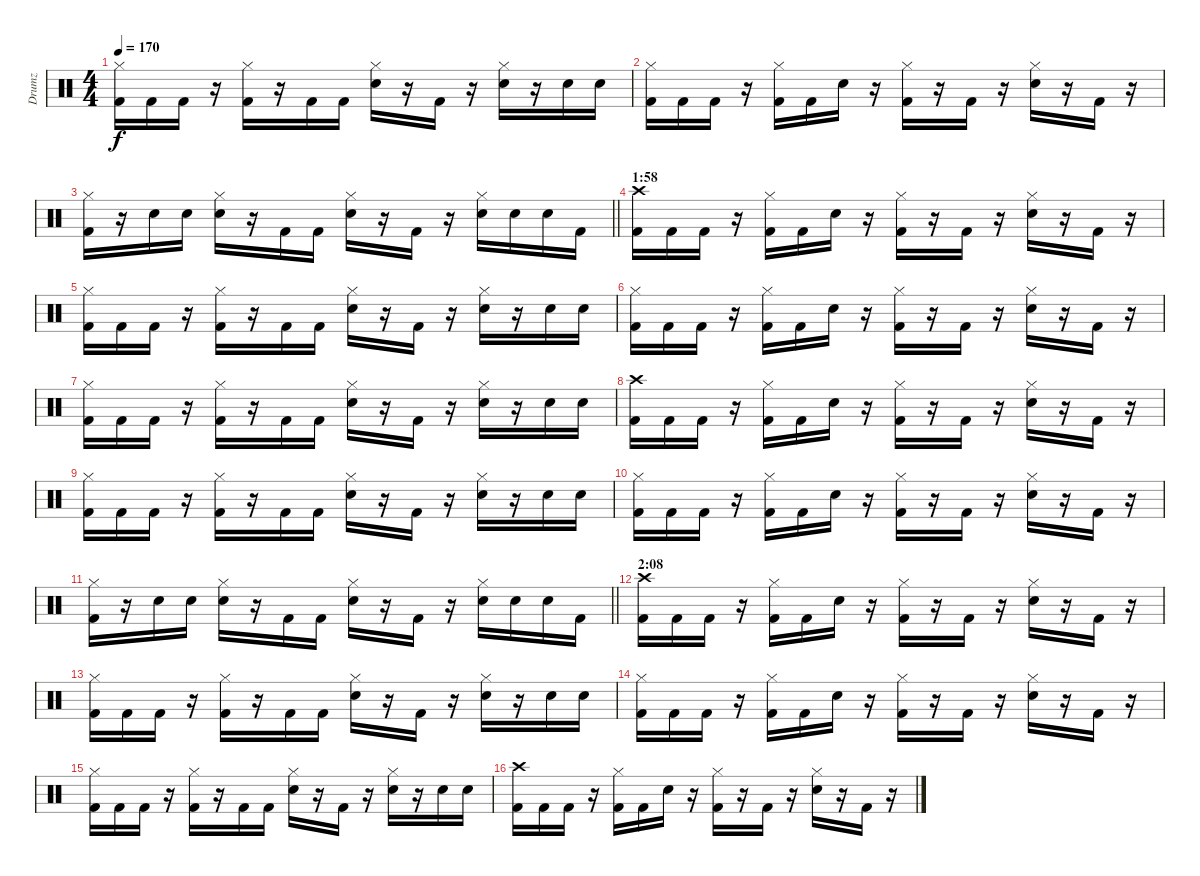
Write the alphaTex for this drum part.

\track ("Drumz" "Drumz") {instrument percussion}
\staff {score}
\articulation defaults
\ts (4 4)
\tempo 170
\clef neutral
\ks c
("Hi-Hat (closed)" "Kick (hit) 2").16{dy f} "Kick (hit) 2".16 "Kick (hit) 2".16 r.16 ("Hi-Hat (closed)" "Kick (hit) 2").16 r.16 "Kick (hit) 2".16 "Kick (hit) 2".16 ("Hi-Hat (closed)" "Electric Snare (hit)").16 r.16 "Kick (hit) 2".16 r.16 ("Hi-Hat (closed)" "Electric Snare (hit)").16 r.16 "Electric Snare (hit)".16 "Electric Snare (hit)".16 |
("Hi-Hat (closed)" "Kick (hit) 2").16 "Kick (hit) 2".16 "Kick (hit) 2".16 r.16 ("Hi-Hat (closed)" "Kick (hit) 2").16 "Kick (hit) 2".16 "Electric Snare (hit)".16 r.16 ("Hi-Hat (closed)" "Kick (hit) 2").16 r.16 "Kick (hit) 2".16 r.16 ("Hi-Hat (closed)" "Electric Snare (hit)").16 r.16 "Kick (hit) 2".16 r.16 |
\barLineRight lightlight
("Hi-Hat (closed)" "Kick (hit) 2").16 r.16 "Electric Snare (hit)".16 "Electric Snare (hit)".16 ("Hi-Hat (closed)" "Electric Snare (hit)").16 r.16 "Kick (hit) 2".16 "Kick (hit) 2".16 ("Hi-Hat (closed)" "Electric Snare (hit)").16 r.16 "Kick (hit) 2".16 r.16 ("Hi-Hat (closed)" "Electric Snare (hit)").16 "Electric Snare (hit)".16 "Electric Snare (hit)".16 "Kick (hit) 2".16 |
\section ("" "1:58")
("Crash high (hit)" "Kick (hit) 2").16 "Kick (hit) 2".16 "Kick (hit) 2".16 r.16 ("Hi-Hat (closed)" "Kick (hit) 2").16 "Kick (hit) 2".16 "Electric Snare (hit)".16 r.16 ("Hi-Hat (closed)" "Kick (hit) 2").16 r.16 "Kick (hit) 2".16 r.16 ("Hi-Hat (closed)" "Electric Snare (hit)").16 r.16 "Kick (hit) 2".16 r.16 |
("Hi-Hat (closed)" "Kick (hit) 2").16 "Kick (hit) 2".16 "Kick (hit) 2".16 r.16 ("Hi-Hat (closed)" "Kick (hit) 2").16 r.16 "Kick (hit) 2".16 "Kick (hit) 2".16 ("Hi-Hat (closed)" "Electric Snare (hit)").16 r.16 "Kick (hit) 2".16 r.16 ("Hi-Hat (closed)" "Electric Snare (hit)").16 r.16 "Electric Snare (hit)".16 "Electric Snare (hit)".16 |
("Hi-Hat (closed)" "Kick (hit) 2").16 "Kick (hit) 2".16 "Kick (hit) 2".16 r.16 ("Hi-Hat (closed)" "Kick (hit) 2").16 "Kick (hit) 2".16 "Electric Snare (hit)".16 r.16 ("Hi-Hat (closed)" "Kick (hit) 2").16 r.16 "Kick (hit) 2".16 r.16 ("Hi-Hat (closed)" "Electric Snare (hit)").16 r.16 "Kick (hit) 2".16 r.16 |
("Hi-Hat (closed)" "Kick (hit) 2").16 "Kick (hit) 2".16 "Kick (hit) 2".16 r.16 ("Hi-Hat (closed)" "Kick (hit) 2").16 r.16 "Kick (hit) 2".16 "Kick (hit) 2".16 ("Hi-Hat (closed)" "Electric Snare (hit)").16 r.16 "Kick (hit) 2".16 r.16 ("Hi-Hat (closed)" "Electric Snare (hit)").16 r.16 "Electric Snare (hit)".16 "Electric Snare (hit)".16 |
("Crash high (hit)" "Kick (hit) 2").16 "Kick (hit) 2".16 "Kick (hit) 2".16 r.16 ("Hi-Hat (closed)" "Kick (hit) 2").16 "Kick (hit) 2".16 "Electric Snare (hit)".16 r.16 ("Hi-Hat (closed)" "Kick (hit) 2").16 r.16 "Kick (hit) 2".16 r.16 ("Hi-Hat (closed)" "Electric Snare (hit)").16 r.16 "Kick (hit) 2".16 r.16 |
("Hi-Hat (closed)" "Kick (hit) 2").16 "Kick (hit) 2".16 "Kick (hit) 2".16 r.16 ("Hi-Hat (closed)" "Kick (hit) 2").16 r.16 "Kick (hit) 2".16 "Kick (hit) 2".16 ("Hi-Hat (closed)" "Electric Snare (hit)").16 r.16 "Kick (hit) 2".16 r.16 ("Hi-Hat (closed)" "Electric Snare (hit)").16 r.16 "Electric Snare (hit)".16 "Electric Snare (hit)".16 |
("Hi-Hat (closed)" "Kick (hit) 2").16 "Kick (hit) 2".16 "Kick (hit) 2".16 r.16 ("Hi-Hat (closed)" "Kick (hit) 2").16 "Kick (hit) 2".16 "Electric Snare (hit)".16 r.16 ("Hi-Hat (closed)" "Kick (hit) 2").16 r.16 "Kick (hit) 2".16 r.16 ("Hi-Hat (closed)" "Electric Snare (hit)").16 r.16 "Kick (hit) 2".16 r.16 |
\barLineRight lightlight
("Hi-Hat (closed)" "Kick (hit) 2").16 r.16 "Electric Snare (hit)".16 "Electric Snare (hit)".16 ("Hi-Hat (closed)" "Electric Snare (hit)").16 r.16 "Kick (hit) 2".16 "Kick (hit) 2".16 ("Hi-Hat (closed)" "Electric Snare (hit)").16 r.16 "Kick (hit) 2".16 r.16 ("Hi-Hat (closed)" "Electric Snare (hit)").16 "Electric Snare (hit)".16 "Electric Snare (hit)".16 "Kick (hit) 2".16 |
\section ("" "2:08")
("Crash high (hit)" "Kick (hit) 2").16 "Kick (hit) 2".16 "Kick (hit) 2".16 r.16 ("Hi-Hat (closed)" "Kick (hit) 2").16 "Kick (hit) 2".16 "Electric Snare (hit)".16 r.16 ("Hi-Hat (closed)" "Kick (hit) 2").16 r.16 "Kick (hit) 2".16 r.16 ("Hi-Hat (closed)" "Electric Snare (hit)").16 r.16 "Kick (hit) 2".16 r.16 |
("Hi-Hat (closed)" "Kick (hit) 2").16 "Kick (hit) 2".16 "Kick (hit) 2".16 r.16 ("Hi-Hat (closed)" "Kick (hit) 2").16 r.16 "Kick (hit) 2".16 "Kick (hit) 2".16 ("Hi-Hat (closed)" "Electric Snare (hit)").16 r.16 "Kick (hit) 2".16 r.16 ("Hi-Hat (closed)" "Electric Snare (hit)").16 r.16 "Electric Snare (hit)".16 "Electric Snare (hit)".16 |
("Hi-Hat (closed)" "Kick (hit) 2").16 "Kick (hit) 2".16 "Kick (hit) 2".16 r.16 ("Hi-Hat (closed)" "Kick (hit) 2").16 "Kick (hit) 2".16 "Electric Snare (hit)".16 r.16 ("Hi-Hat (closed)" "Kick (hit) 2").16 r.16 "Kick (hit) 2".16 r.16 ("Hi-Hat (closed)" "Electric Snare (hit)").16 r.16 "Kick (hit) 2".16 r.16 |
("Hi-Hat (closed)" "Kick (hit) 2").16 "Kick (hit) 2".16 "Kick (hit) 2".16 r.16 ("Hi-Hat (closed)" "Kick (hit) 2").16 r.16 "Kick (hit) 2".16 "Kick (hit) 2".16 ("Hi-Hat (closed)" "Electric Snare (hit)").16 r.16 "Kick (hit) 2".16 r.16 ("Hi-Hat (closed)" "Electric Snare (hit)").16 r.16 "Electric Snare (hit)".16 "Electric Snare (hit)".16 |
("Crash high (hit)" "Kick (hit) 2").16 "Kick (hit) 2".16 "Kick (hit) 2".16 r.16 ("Hi-Hat (closed)" "Kick (hit) 2").16 "Kick (hit) 2".16 "Electric Snare (hit)".16 r.16 ("Hi-Hat (closed)" "Kick (hit) 2").16 r.16 "Kick (hit) 2".16 r.16 ("Hi-Hat (closed)" "Electric Snare (hit)").16 r.16 "Kick (hit) 2".16 r.16
